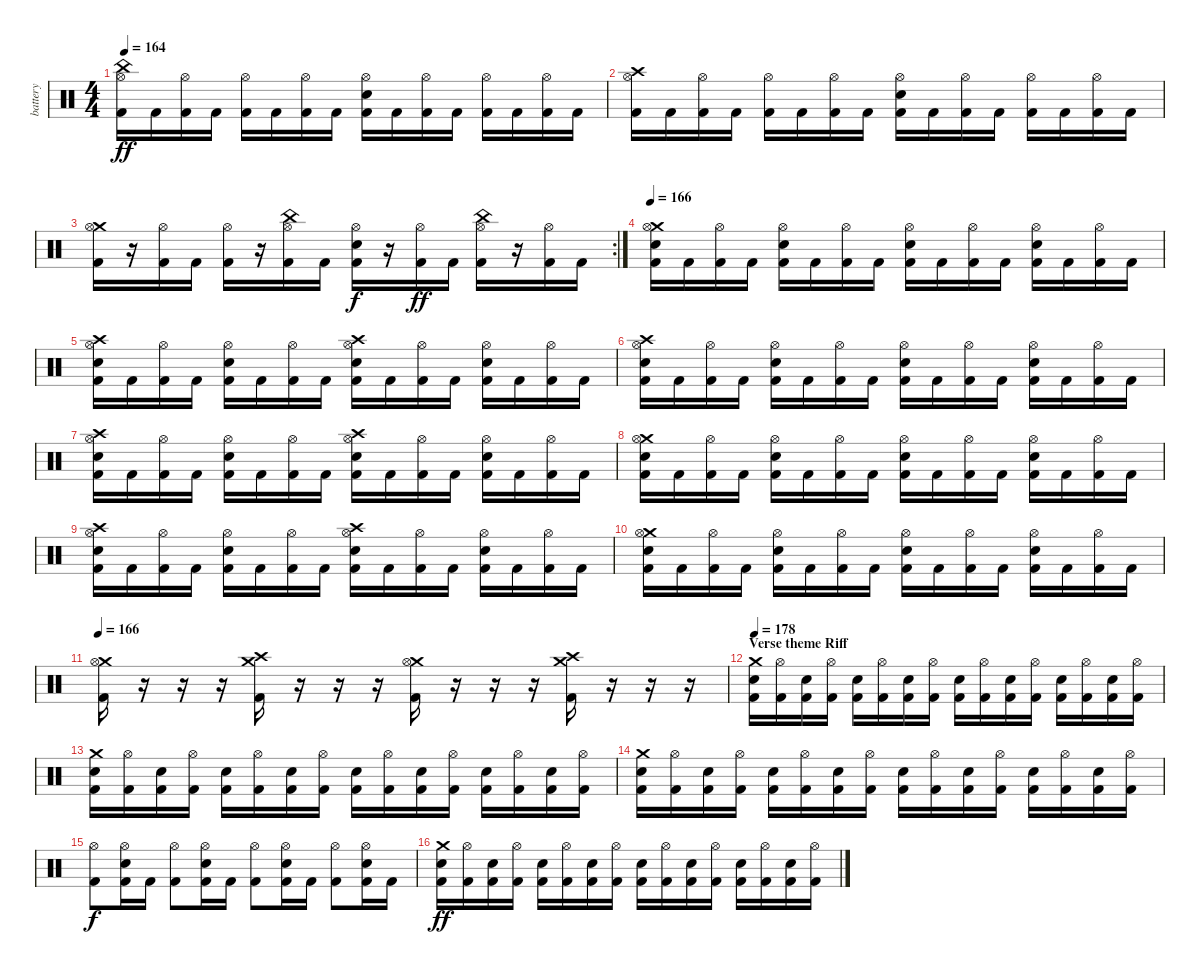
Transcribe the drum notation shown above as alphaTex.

\track ("battery" "battery") {instrument percussion}
\staff {score}
\articulation defaults
\ts (4 4)
\tempo 164
\clef neutral
\ks c
("Kick (hit) 2" "China (hit)" "Hi-Hat (open)").16{dy ff} "Kick (hit) 2".16 ("Kick (hit) 2" "Hi-Hat (open)").16 "Kick (hit) 2".16 ("Kick (hit) 2" "Hi-Hat (open)").16 "Kick (hit) 2".16 ("Kick (hit) 2" "Hi-Hat (open)").16 "Kick (hit) 2".16 ("Kick (hit) 2" "Electric Snare (hit)" "Hi-Hat (open)").16 "Kick (hit) 2".16 ("Kick (hit) 2" "Hi-Hat (open)").16 "Kick (hit) 2".16 ("Kick (hit) 2" "Hi-Hat (open)").16 "Kick (hit) 2".16 ("Kick (hit) 2" "Hi-Hat (open)").16 "Kick (hit) 2".16 |
("Kick (hit) 2" "Crash high (hit)" "Hi-Hat (open)").16 "Kick (hit) 2".16 ("Kick (hit) 2" "Hi-Hat (open)").16 "Kick (hit) 2".16 ("Kick (hit) 2" "Hi-Hat (open)").16 "Kick (hit) 2".16 ("Kick (hit) 2" "Hi-Hat (open)").16 "Kick (hit) 2".16 ("Kick (hit) 2" "Electric Snare (hit)" "Hi-Hat (open)").16 "Kick (hit) 2".16 ("Kick (hit) 2" "Hi-Hat (open)").16 "Kick (hit) 2".16 ("Kick (hit) 2" "Hi-Hat (open)").16 "Kick (hit) 2".16 ("Kick (hit) 2" "Hi-Hat (open)").16 "Kick (hit) 2".16 |
\rc 2
("Kick (hit) 2" "Crash medium (hit)" "Hi-Hat (open)").16 r.16 ("Kick (hit) 2" "Hi-Hat (open)").16 "Kick (hit) 2".16 ("Kick (hit) 2" "Hi-Hat (open)").16 r.16 ("Kick (hit) 2" "China (hit)" "Hi-Hat (open)").16 "Kick (hit) 2".16 ("Kick (hit) 2" "Electric Snare (hit)" "Hi-Hat (open)").16{dy f} r.16 ("Kick (hit) 2" "Hi-Hat (open)").16{dy ff} "Kick (hit) 2".16 ("Kick (hit) 2" "China (hit)" "Hi-Hat (open)").16 r.16 ("Kick (hit) 2" "Hi-Hat (open)").16 "Kick (hit) 2".16 |
\tempo 166
("Kick (hit) 2" "Electric Snare (hit)" "Crash medium (hit)" "Hi-Hat (open)").16 "Kick (hit) 2".16 ("Kick (hit) 2" "Hi-Hat (open)").16 "Kick (hit) 2".16 ("Kick (hit) 2" "Electric Snare (hit)" "Hi-Hat (open)").16 "Kick (hit) 2".16 ("Kick (hit) 2" "Hi-Hat (open)").16 "Kick (hit) 2".16 ("Kick (hit) 2" "Electric Snare (hit)" "Hi-Hat (open)").16 "Kick (hit) 2".16 ("Kick (hit) 2" "Hi-Hat (open)").16 "Kick (hit) 2".16 ("Kick (hit) 2" "Electric Snare (hit)" "Hi-Hat (open)").16 "Kick (hit) 2".16 ("Kick (hit) 2" "Hi-Hat (open)").16 "Kick (hit) 2".16 |
("Kick (hit) 2" "Electric Snare (hit)" "Crash high (hit)" "Hi-Hat (open)").16 "Kick (hit) 2".16 ("Kick (hit) 2" "Hi-Hat (open)").16 "Kick (hit) 2".16 ("Kick (hit) 2" "Electric Snare (hit)" "Hi-Hat (open)").16 "Kick (hit) 2".16 ("Kick (hit) 2" "Hi-Hat (open)").16 "Kick (hit) 2".16 ("Kick (hit) 2" "Electric Snare (hit)" "Crash high (hit)" "Hi-Hat (open)").16 "Kick (hit) 2".16 ("Kick (hit) 2" "Hi-Hat (open)").16 "Kick (hit) 2".16 ("Kick (hit) 2" "Electric Snare (hit)" "Hi-Hat (open)").16 "Kick (hit) 2".16 ("Kick (hit) 2" "Hi-Hat (open)").16 "Kick (hit) 2".16 |
("Kick (hit) 2" "Electric Snare (hit)" "Crash high (hit)" "Hi-Hat (open)").16 "Kick (hit) 2".16 ("Kick (hit) 2" "Hi-Hat (open)").16 "Kick (hit) 2".16 ("Kick (hit) 2" "Electric Snare (hit)" "Hi-Hat (open)").16 "Kick (hit) 2".16 ("Kick (hit) 2" "Hi-Hat (open)").16 "Kick (hit) 2".16 ("Kick (hit) 2" "Electric Snare (hit)" "Hi-Hat (open)").16 "Kick (hit) 2".16 ("Kick (hit) 2" "Hi-Hat (open)").16 "Kick (hit) 2".16 ("Kick (hit) 2" "Electric Snare (hit)" "Hi-Hat (open)").16 "Kick (hit) 2".16 ("Kick (hit) 2" "Hi-Hat (open)").16 "Kick (hit) 2".16 |
("Kick (hit) 2" "Electric Snare (hit)" "Crash high (hit)" "Hi-Hat (open)").16 "Kick (hit) 2".16 ("Kick (hit) 2" "Hi-Hat (open)").16 "Kick (hit) 2".16 ("Kick (hit) 2" "Electric Snare (hit)" "Hi-Hat (open)").16 "Kick (hit) 2".16 ("Kick (hit) 2" "Hi-Hat (open)").16 "Kick (hit) 2".16 ("Kick (hit) 2" "Electric Snare (hit)" "Crash high (hit)" "Hi-Hat (open)").16 "Kick (hit) 2".16 ("Kick (hit) 2" "Hi-Hat (open)").16 "Kick (hit) 2".16 ("Kick (hit) 2" "Electric Snare (hit)" "Hi-Hat (open)").16 "Kick (hit) 2".16 ("Kick (hit) 2" "Hi-Hat (open)").16 "Kick (hit) 2".16 |
("Kick (hit) 2" "Electric Snare (hit)" "Crash medium (hit)" "Hi-Hat (open)").16 "Kick (hit) 2".16 ("Kick (hit) 2" "Hi-Hat (open)").16 "Kick (hit) 2".16 ("Kick (hit) 2" "Electric Snare (hit)" "Hi-Hat (open)").16 "Kick (hit) 2".16 ("Kick (hit) 2" "Hi-Hat (open)").16 "Kick (hit) 2".16 ("Kick (hit) 2" "Electric Snare (hit)" "Hi-Hat (open)").16 "Kick (hit) 2".16 ("Kick (hit) 2" "Hi-Hat (open)").16 "Kick (hit) 2".16 ("Kick (hit) 2" "Electric Snare (hit)" "Hi-Hat (open)").16 "Kick (hit) 2".16 ("Kick (hit) 2" "Hi-Hat (open)").16 "Kick (hit) 2".16 |
("Kick (hit) 2" "Electric Snare (hit)" "Crash high (hit)" "Hi-Hat (open)").16 "Kick (hit) 2".16 ("Kick (hit) 2" "Hi-Hat (open)").16 "Kick (hit) 2".16 ("Kick (hit) 2" "Electric Snare (hit)" "Hi-Hat (open)").16 "Kick (hit) 2".16 ("Kick (hit) 2" "Hi-Hat (open)").16 "Kick (hit) 2".16 ("Kick (hit) 2" "Electric Snare (hit)" "Crash high (hit)" "Hi-Hat (open)").16 "Kick (hit) 2".16 ("Kick (hit) 2" "Hi-Hat (open)").16 "Kick (hit) 2".16 ("Kick (hit) 2" "Electric Snare (hit)" "Hi-Hat (open)").16 "Kick (hit) 2".16 ("Kick (hit) 2" "Hi-Hat (open)").16 "Kick (hit) 2".16 |
("Kick (hit) 2" "Electric Snare (hit)" "Crash medium (hit)" "Hi-Hat (open)").16 "Kick (hit) 2".16 ("Kick (hit) 2" "Hi-Hat (open)").16 "Kick (hit) 2".16 ("Kick (hit) 2" "Electric Snare (hit)" "Hi-Hat (open)").16 "Kick (hit) 2".16 ("Kick (hit) 2" "Hi-Hat (open)").16 "Kick (hit) 2".16 ("Kick (hit) 2" "Electric Snare (hit)" "Hi-Hat (open)").16 "Kick (hit) 2".16 ("Kick (hit) 2" "Hi-Hat (open)").16 "Kick (hit) 2".16 ("Kick (hit) 2" "Electric Snare (hit)" "Hi-Hat (open)").16 "Kick (hit) 2".16 ("Kick (hit) 2" "Hi-Hat (open)").16 "Kick (hit) 2".16 |
\tempo 166
("Kick (hit) 2" "Crash medium (hit)" "Hi-Hat (open)").16 r.16 r.16 r.16 ("Kick (hit) 2" "Crash medium (hit)" "Crash high (hit)").16 r.16 r.16 r.16 ("Kick (hit) 2" "Crash medium (hit)" "Hi-Hat (open)").16 r.16 r.16 r.16 ("Kick (hit) 2" "Crash medium (hit)" "Crash high (hit)").16 r.16 r.16 r.16 |
\section ("" "Verse theme Riff")
\tempo 178
("Kick (hit) 2" "Electric Snare (hit)" "Crash medium (hit)").16 ("Kick (hit) 2" "Hi-Hat (open)").16 ("Kick (hit) 2" "Electric Snare (hit)").16 ("Kick (hit) 2" "Hi-Hat (open)").16 ("Kick (hit) 2" "Electric Snare (hit)").16 ("Kick (hit) 2" "Hi-Hat (open)").16 ("Kick (hit) 2" "Electric Snare (hit)").16 ("Kick (hit) 2" "Hi-Hat (open)").16 ("Kick (hit) 2" "Electric Snare (hit)").16 ("Kick (hit) 2" "Hi-Hat (open)").16 ("Kick (hit) 2" "Electric Snare (hit)").16 ("Kick (hit) 2" "Hi-Hat (open)").16 ("Kick (hit) 2" "Electric Snare (hit)").16 ("Kick (hit) 2" "Hi-Hat (open)").16 ("Kick (hit) 2" "Electric Snare (hit)").16 ("Kick (hit) 2" "Hi-Hat (open)").16 |
("Kick (hit) 2" "Electric Snare (hit)" "Crash medium (hit)").16 ("Kick (hit) 2" "Hi-Hat (open)").16 ("Kick (hit) 2" "Electric Snare (hit)").16 ("Kick (hit) 2" "Hi-Hat (open)").16 ("Kick (hit) 2" "Electric Snare (hit)").16 ("Kick (hit) 2" "Hi-Hat (open)").16 ("Kick (hit) 2" "Electric Snare (hit)").16 ("Kick (hit) 2" "Hi-Hat (open)").16 ("Kick (hit) 2" "Electric Snare (hit)").16 ("Kick (hit) 2" "Hi-Hat (open)").16 ("Kick (hit) 2" "Electric Snare (hit)").16 ("Kick (hit) 2" "Hi-Hat (open)").16 ("Kick (hit) 2" "Electric Snare (hit)").16 ("Kick (hit) 2" "Hi-Hat (open)").16 ("Kick (hit) 2" "Electric Snare (hit)").16 ("Kick (hit) 2" "Hi-Hat (open)").16 |
("Kick (hit) 2" "Electric Snare (hit)" "Crash medium (hit)").16 ("Kick (hit) 2" "Hi-Hat (open)").16 ("Kick (hit) 2" "Electric Snare (hit)").16 ("Kick (hit) 2" "Hi-Hat (open)").16 ("Kick (hit) 2" "Electric Snare (hit)").16 ("Kick (hit) 2" "Hi-Hat (open)").16 ("Kick (hit) 2" "Electric Snare (hit)").16 ("Kick (hit) 2" "Hi-Hat (open)").16 ("Kick (hit) 2" "Electric Snare (hit)").16 ("Kick (hit) 2" "Hi-Hat (open)").16 ("Kick (hit) 2" "Electric Snare (hit)").16 ("Kick (hit) 2" "Hi-Hat (open)").16 ("Kick (hit) 2" "Electric Snare (hit)").16 ("Kick (hit) 2" "Hi-Hat (open)").16 ("Kick (hit) 2" "Electric Snare (hit)").16 ("Kick (hit) 2" "Hi-Hat (open)").16 |
("Kick (hit) 2" "Hi-Hat (open)").8{dy f} ("Kick (hit) 2" "Electric Snare (hit)" "Hi-Hat (open)").16 "Kick (hit) 2".16 ("Kick (hit) 2" "Hi-Hat (open)").8 ("Kick (hit) 2" "Electric Snare (hit)" "Hi-Hat (open)").16 "Kick (hit) 2".16 ("Kick (hit) 2" "Hi-Hat (open)").8 ("Kick (hit) 2" "Electric Snare (hit)" "Hi-Hat (open)").16 "Kick (hit) 2".16 ("Kick (hit) 2" "Hi-Hat (open)").8 ("Kick (hit) 2" "Electric Snare (hit)" "Hi-Hat (open)").16 "Kick (hit) 2".16 |
("Kick (hit) 2" "Electric Snare (hit)" "Crash medium (hit)").16{dy ff} ("Kick (hit) 2" "Hi-Hat (open)").16 ("Kick (hit) 2" "Electric Snare (hit)").16 ("Kick (hit) 2" "Hi-Hat (open)").16 ("Kick (hit) 2" "Electric Snare (hit)").16 ("Kick (hit) 2" "Hi-Hat (open)").16 ("Kick (hit) 2" "Electric Snare (hit)").16 ("Kick (hit) 2" "Hi-Hat (open)").16 ("Kick (hit) 2" "Electric Snare (hit)").16 ("Kick (hit) 2" "Hi-Hat (open)").16 ("Kick (hit) 2" "Electric Snare (hit)").16 ("Kick (hit) 2" "Hi-Hat (open)").16 ("Kick (hit) 2" "Electric Snare (hit)").16 ("Kick (hit) 2" "Hi-Hat (open)").16 ("Kick (hit) 2" "Electric Snare (hit)").16 ("Kick (hit) 2" "Hi-Hat (open)").16
